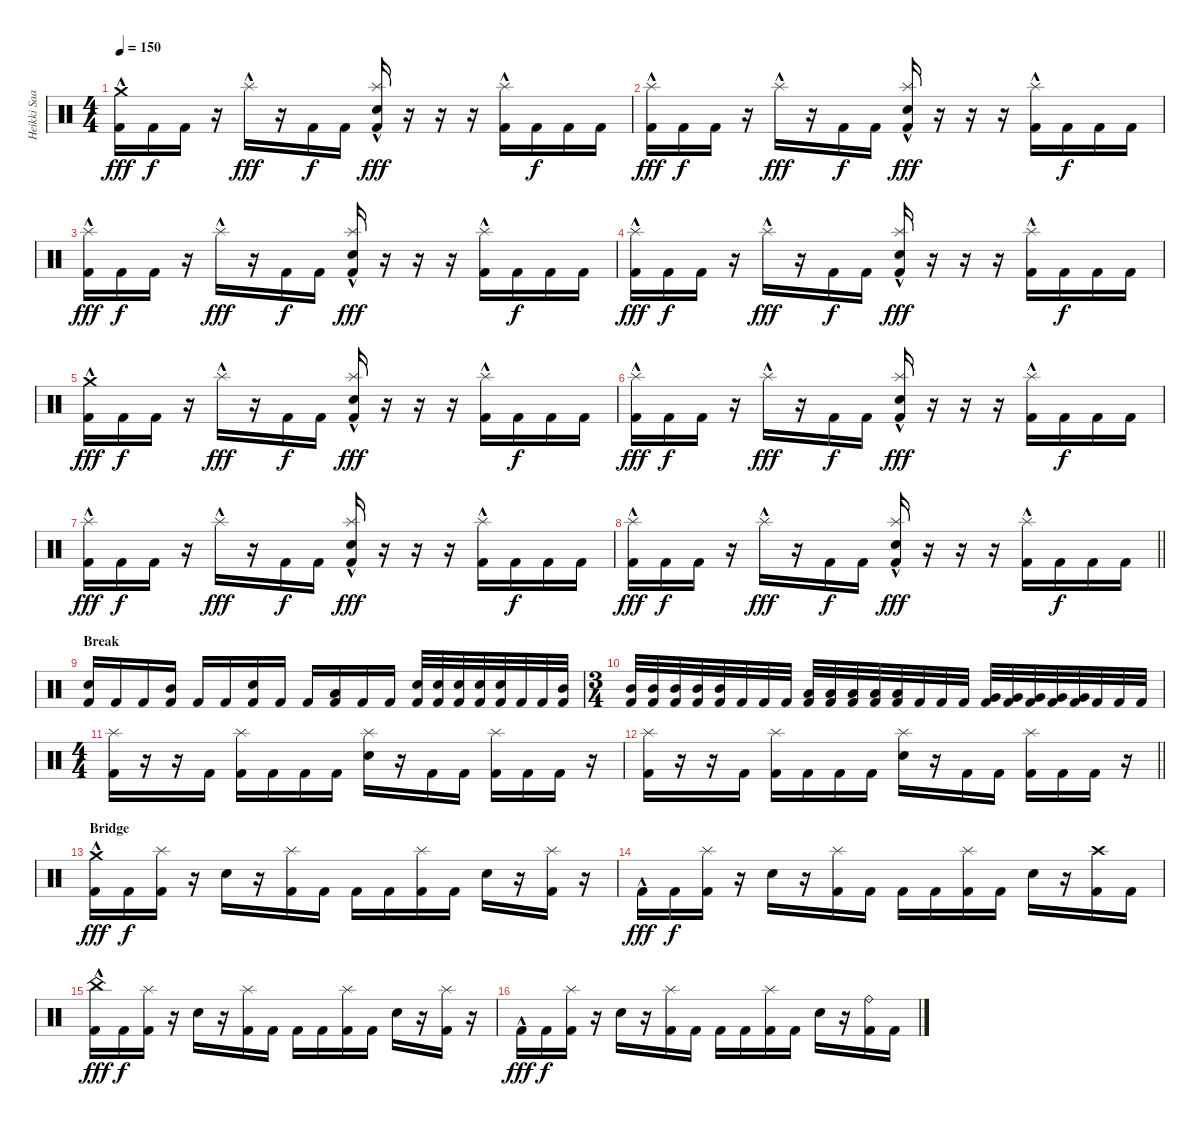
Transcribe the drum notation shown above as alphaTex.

\track ("Heikki Saari" "Heikki Saa") {instrument percussion}
\staff {score}
\articulation defaults
\ts (4 4)
\tempo 150
\clef neutral
\ks c
("Crash medium (hit)"{hac} "Kick (hit) 2").16{dy fff} "Kick (hit) 2".16{dy f} "Kick (hit) 2".16 r.16 "Splash (hit)"{hac}.16{dy fff} r.16 "Kick (hit) 2".16{dy f} "Kick (hit) 2".16 ("Splash (hit)"{hac} "Electric Snare (hit)" "Kick (hit) 2").16{dy fff} r.16 r.16 r.16 ("Splash (hit)"{hac} "Kick (hit) 2").16 "Kick (hit) 2".16{dy f} "Kick (hit) 2".16 "Kick (hit) 2".16 |
("Splash (hit)"{hac} "Kick (hit) 2").16{dy fff} "Kick (hit) 2".16{dy f} "Kick (hit) 2".16 r.16 "Splash (hit)"{hac}.16{dy fff} r.16 "Kick (hit) 2".16{dy f} "Kick (hit) 2".16 ("Splash (hit)"{hac} "Electric Snare (hit)" "Kick (hit) 2").16{dy fff} r.16 r.16 r.16 ("Splash (hit)"{hac} "Kick (hit) 2").16 "Kick (hit) 2".16{dy f} "Kick (hit) 2".16 "Kick (hit) 2".16 |
("Splash (hit)"{hac} "Kick (hit) 2").16{dy fff} "Kick (hit) 2".16{dy f} "Kick (hit) 2".16 r.16 "Splash (hit)"{hac}.16{dy fff} r.16 "Kick (hit) 2".16{dy f} "Kick (hit) 2".16 ("Splash (hit)"{hac} "Electric Snare (hit)" "Kick (hit) 2").16{dy fff} r.16 r.16 r.16 ("Splash (hit)"{hac} "Kick (hit) 2").16 "Kick (hit) 2".16{dy f} "Kick (hit) 2".16 "Kick (hit) 2".16 |
("Splash (hit)"{hac} "Kick (hit) 2").16{dy fff} "Kick (hit) 2".16{dy f} "Kick (hit) 2".16 r.16 "Splash (hit)"{hac}.16{dy fff} r.16 "Kick (hit) 2".16{dy f} "Kick (hit) 2".16 ("Splash (hit)"{hac} "Electric Snare (hit)" "Kick (hit) 2").16{dy fff} r.16 r.16 r.16 ("Splash (hit)"{hac} "Kick (hit) 2").16 "Kick (hit) 2".16{dy f} "Kick (hit) 2".16 "Kick (hit) 2".16 |
("Crash medium (hit)"{hac} "Kick (hit) 2").16{dy fff} "Kick (hit) 2".16{dy f} "Kick (hit) 2".16 r.16 "Splash (hit)"{hac}.16{dy fff} r.16 "Kick (hit) 2".16{dy f} "Kick (hit) 2".16 ("Splash (hit)"{hac} "Electric Snare (hit)" "Kick (hit) 2").16{dy fff} r.16 r.16 r.16 ("Splash (hit)"{hac} "Kick (hit) 2").16 "Kick (hit) 2".16{dy f} "Kick (hit) 2".16 "Kick (hit) 2".16 |
("Splash (hit)"{hac} "Kick (hit) 2").16{dy fff} "Kick (hit) 2".16{dy f} "Kick (hit) 2".16 r.16 "Splash (hit)"{hac}.16{dy fff} r.16 "Kick (hit) 2".16{dy f} "Kick (hit) 2".16 ("Splash (hit)"{hac} "Electric Snare (hit)" "Kick (hit) 2").16{dy fff} r.16 r.16 r.16 ("Splash (hit)"{hac} "Kick (hit) 2").16 "Kick (hit) 2".16{dy f} "Kick (hit) 2".16 "Kick (hit) 2".16 |
("Splash (hit)"{hac} "Kick (hit) 2").16{dy fff} "Kick (hit) 2".16{dy f} "Kick (hit) 2".16 r.16 "Splash (hit)"{hac}.16{dy fff} r.16 "Kick (hit) 2".16{dy f} "Kick (hit) 2".16 ("Splash (hit)"{hac} "Electric Snare (hit)" "Kick (hit) 2").16{dy fff} r.16 r.16 r.16 ("Splash (hit)"{hac} "Kick (hit) 2").16 "Kick (hit) 2".16{dy f} "Kick (hit) 2".16 "Kick (hit) 2".16 |
\barLineRight lightlight
("Splash (hit)"{hac} "Kick (hit) 2").16{dy fff} "Kick (hit) 2".16{dy f} "Kick (hit) 2".16 r.16 "Splash (hit)"{hac}.16{dy fff} r.16 "Kick (hit) 2".16{dy f} "Kick (hit) 2".16 ("Splash (hit)"{hac} "Electric Snare (hit)" "Kick (hit) 2").16{dy fff} r.16 r.16 r.16 ("Splash (hit)"{hac} "Kick (hit) 2").16 "Kick (hit) 2".16{dy f} "Kick (hit) 2".16 "Kick (hit) 2".16 |
\section ("" "Break")
("Electric Snare (hit)" "Kick (hit) 2").16 "Kick (hit) 2".16 "Kick (hit) 2".16 ("Mid Tom (hit)" "Kick (hit) 2").16 "Kick (hit) 2".16 "Kick (hit) 2".16 ("Electric Snare (hit)" "Kick (hit) 2").16 "Kick (hit) 2".16 "Kick (hit) 2".16 ("Low Tom (hit)" "Kick (hit) 2").16 "Kick (hit) 2".16 "Kick (hit) 2".16 ("Electric Snare (hit)" "Kick (hit) 2").32 ("Electric Snare (hit)" "Kick (hit) 2").32 ("Electric Snare (hit)" "Kick (hit) 2").32 ("Electric Snare (hit)" "Kick (hit) 2").32 ("Electric Snare (hit)" "Kick (hit) 2").32 "Kick (hit) 2".32 "Kick (hit) 2".32 ("Mid Tom (hit)" "Kick (hit) 2").32 |
\ts (3 4)
("Mid Tom (hit)" "Kick (hit) 2").32 ("Mid Tom (hit)" "Kick (hit) 2").32 ("Mid Tom (hit)" "Kick (hit) 2").32 ("Mid Tom (hit)" "Kick (hit) 2").32 ("Mid Tom (hit)" "Kick (hit) 2").32 "Kick (hit) 2".32 "Kick (hit) 2".32 "Kick (hit) 2".32 ("Low Tom (hit)" "Kick (hit) 2").32 ("Low Tom (hit)" "Kick (hit) 2").32 ("Low Tom (hit)" "Kick (hit) 2").32 ("Low Tom (hit)" "Kick (hit) 2").32 ("Low Tom (hit)" "Kick (hit) 2").32 "Kick (hit) 2".32 "Kick (hit) 2".32 "Kick (hit) 2".32 ("Very Low Tom (hit)" "Kick (hit) 2").32 ("Very Low Tom (hit)" "Kick (hit) 2").32 ("Very Low Tom (hit)" "Kick (hit) 2").32 ("Very Low Tom (hit)" "Kick (hit) 2").32 ("Very Low Tom (hit)" "Kick (hit) 2").32 "Kick (hit) 2".32 "Kick (hit) 2".32 "Kick (hit) 2".32 |
\ts (4 4)
("Kick (hit) 2" "Splash (hit)").16 r.16 r.16 "Kick (hit) 2".16 ("Kick (hit) 2" "Splash (hit)").16 "Kick (hit) 2".16 "Kick (hit) 2".16 "Kick (hit) 2".16 ("Electric Snare (hit)" "Splash (hit)").16 r.16 "Kick (hit) 2".16 "Kick (hit) 2".16 ("Kick (hit) 2" "Splash (hit)").16 "Kick (hit) 2".16 "Kick (hit) 2".16 r.16 |
\barLineRight lightlight
("Kick (hit) 2" "Splash (hit)").16 r.16 r.16 "Kick (hit) 2".16 ("Kick (hit) 2" "Splash (hit)").16 "Kick (hit) 2".16 "Kick (hit) 2".16 "Kick (hit) 2".16 ("Electric Snare (hit)" "Splash (hit)").16 r.16 "Kick (hit) 2".16 "Kick (hit) 2".16 ("Kick (hit) 2" "Splash (hit)").16 "Kick (hit) 2".16 "Kick (hit) 2".16 r.16 |
\section ("" "Bridge")
("Crash medium (hit)"{hac} "Kick (hit) 2").16{dy fff} "Kick (hit) 2".16{dy f} ("Kick (hit) 2" "Splash (hit)").16 r.16 "Electric Snare (hit)".16 r.16 ("Kick (hit) 2" "Splash (hit)").16 "Kick (hit) 2".16 "Kick (hit) 2".16 "Kick (hit) 2".16 ("Kick (hit) 2" "Splash (hit)").16 "Kick (hit) 2".16 "Electric Snare (hit)".16 r.16 ("Kick (hit) 2" "Splash (hit)").16 r.16 |
"Kick (hit) 2"{hac}.16{dy fff} "Kick (hit) 2".16{dy f} ("Kick (hit) 2" "Splash (hit)").16 r.16 "Electric Snare (hit)".16 r.16 ("Kick (hit) 2" "Splash (hit)").16 "Kick (hit) 2".16 "Kick (hit) 2".16 "Kick (hit) 2".16 ("Kick (hit) 2" "Splash (hit)").16 "Kick (hit) 2".16 "Electric Snare (hit)".16 r.16 ("Kick (hit) 2" "Crash high (hit)").16 "Kick (hit) 2".16 |
("Kick (hit) 2"{hac} "China (hit)").16{dy fff} "Kick (hit) 2".16{dy f} ("Kick (hit) 2" "Splash (hit)").16 r.16 "Electric Snare (hit)".16 r.16 ("Kick (hit) 2" "Splash (hit)").16 "Kick (hit) 2".16 "Kick (hit) 2".16 "Kick (hit) 2".16 ("Kick (hit) 2" "Splash (hit)").16 "Kick (hit) 2".16 "Electric Snare (hit)".16 r.16 ("Kick (hit) 2" "Splash (hit)").16 r.16 |
"Kick (hit) 2"{hac}.16{dy fff} "Kick (hit) 2".16{dy f} ("Kick (hit) 2" "Splash (hit)").16 r.16 "Electric Snare (hit)".16 r.16 ("Kick (hit) 2" "Splash (hit)").16 "Kick (hit) 2".16 "Kick (hit) 2".16 "Kick (hit) 2".16 ("Kick (hit) 2" "Splash (hit)").16 "Kick (hit) 2".16 "Electric Snare (hit)".16 r.16 ("Kick (hit) 2" "Ride (bell)").16 "Kick (hit) 2".16
